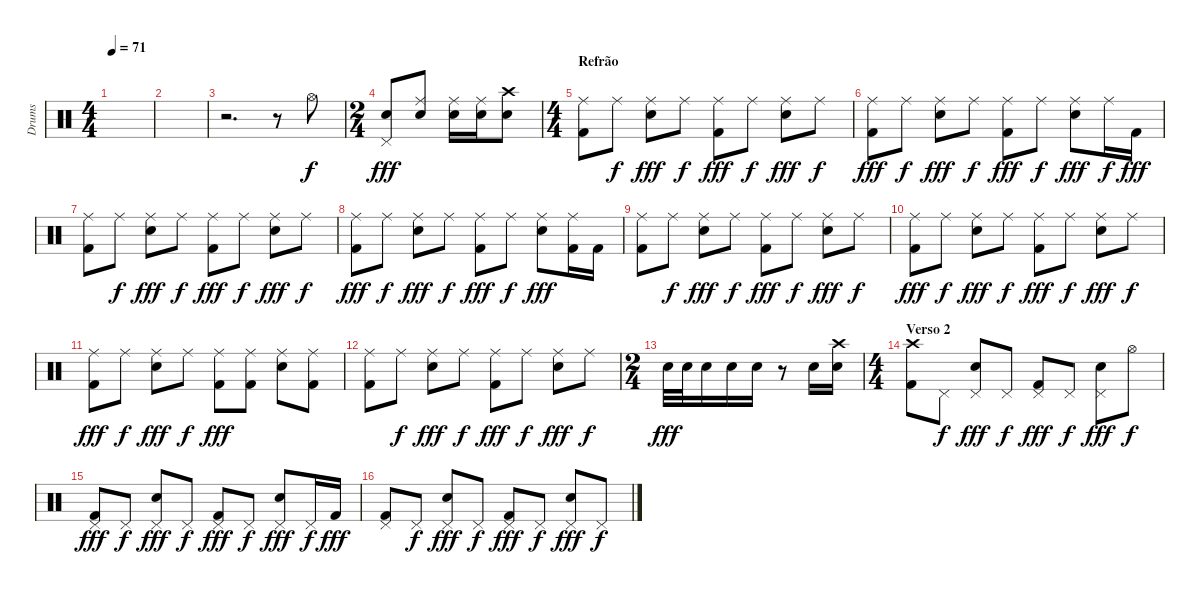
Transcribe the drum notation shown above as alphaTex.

\track ("Drums" "Drums") {instrument percussion}
\staff {score}
\articulation defaults
\ts (4 4)
\tempo 71
\clef neutral
\ks c
|
|
r.2{d} r.8 "Hi-Hat (open)".8 |
\ts (2 4)
("Electric Snare (hit)" "Pedal Hi-Hat (hit)").8{dy fff} ("Electric Snare (hit)" "Ride (middle)").8 ("Electric Snare (hit)" "Ride (middle)").16 ("Electric Snare (hit)" "Ride (middle)").16 ("Electric Snare (hit)" "Crash high (hit)").8 |
\ts (4 4)
\section ("" "Refrão")
("Ride (middle)" "Kick (hit) 2").8 "Ride (middle)".8{dy f} ("Ride (middle)" "Electric Snare (hit)").8{dy fff} "Ride (middle)".8{dy f} ("Ride (middle)" "Kick (hit) 2").8{dy fff} "Ride (middle)".8{dy f} ("Ride (middle)" "Electric Snare (hit)").8{dy fff} "Ride (middle)".8{dy f} |
("Ride (middle)" "Kick (hit) 2").8{dy fff} "Ride (middle)".8{dy f} ("Ride (middle)" "Electric Snare (hit)").8{dy fff} "Ride (middle)".8{dy f} ("Ride (middle)" "Kick (hit) 2").8{dy fff} "Ride (middle)".8{dy f} ("Ride (middle)" "Electric Snare (hit)").8{dy fff} "Ride (middle)".16{dy f} "Kick (hit) 2".16{dy fff} |
("Ride (middle)" "Kick (hit) 2").8 "Ride (middle)".8{dy f} ("Ride (middle)" "Electric Snare (hit)").8{dy fff} "Ride (middle)".8{dy f} ("Ride (middle)" "Kick (hit) 2").8{dy fff} "Ride (middle)".8{dy f} ("Ride (middle)" "Electric Snare (hit)").8{dy fff} "Ride (middle)".8{dy f} |
("Ride (middle)" "Kick (hit) 2").8{dy fff} "Ride (middle)".8{dy f} ("Ride (middle)" "Electric Snare (hit)").8{dy fff} "Ride (middle)".8{dy f} ("Ride (middle)" "Kick (hit) 2").8{dy fff} "Ride (middle)".8{dy f} ("Ride (middle)" "Electric Snare (hit)").8{dy fff} ("Ride (middle)" "Kick (hit) 2").16 "Kick (hit) 2".16 |
("Ride (middle)" "Kick (hit) 2").8 "Ride (middle)".8{dy f} ("Ride (middle)" "Electric Snare (hit)").8{dy fff} "Ride (middle)".8{dy f} ("Ride (middle)" "Kick (hit) 2").8{dy fff} "Ride (middle)".8{dy f} ("Ride (middle)" "Electric Snare (hit)").8{dy fff} "Ride (middle)".8{dy f} |
("Ride (middle)" "Kick (hit) 2").8{dy fff} "Ride (middle)".8{dy f} ("Ride (middle)" "Electric Snare (hit)").8{dy fff} "Ride (middle)".8{dy f} ("Ride (middle)" "Kick (hit) 2").8{dy fff} "Ride (middle)".8{dy f} ("Ride (middle)" "Electric Snare (hit)").8{dy fff} "Ride (middle)".8{dy f} |
("Ride (middle)" "Kick (hit) 2").8{dy fff} "Ride (middle)".8{dy f} ("Ride (middle)" "Electric Snare (hit)").8{dy fff} "Ride (middle)".8{dy f} ("Ride (middle)" "Kick (hit) 2").8{dy fff} ("Ride (middle)" "Kick (hit) 2").8 ("Ride (middle)" "Electric Snare (hit)").8 ("Ride (middle)" "Kick (hit) 2").8 |
("Ride (middle)" "Kick (hit) 2").8 "Ride (middle)".8{dy f} ("Ride (middle)" "Electric Snare (hit)").8{dy fff} "Ride (middle)".8{dy f} ("Ride (middle)" "Kick (hit) 2").8{dy fff} "Ride (middle)".8{dy f} ("Ride (middle)" "Electric Snare (hit)").8{dy fff} "Ride (middle)".8{dy f} |
\ts (2 4)
"Electric Snare (hit)".32{dy fff} "Electric Snare (hit)".32 "Electric Snare (hit)".16 "Electric Snare (hit)".16 "Electric Snare (hit)".16 r.8 "Electric Snare (hit)".16 ("Electric Snare (hit)" "Crash high (hit)").16 |
\ts (4 4)
\section ("" "Verso 2")
("Crash high (hit)" "Kick (hit) 2").8 "Pedal Hi-Hat (hit)".8{dy f} ("Pedal Hi-Hat (hit)" "Electric Snare (hit)").8{dy fff} "Pedal Hi-Hat (hit)".8{dy f} ("Pedal Hi-Hat (hit)" "Kick (hit) 2").8{dy fff} "Pedal Hi-Hat (hit)".8{dy f} ("Pedal Hi-Hat (hit)" "Electric Snare (hit)").8{dy fff} "Hi-Hat (open)".8{dy f} |
("Pedal Hi-Hat (hit)" "Kick (hit) 2").8{dy fff} "Pedal Hi-Hat (hit)".8{dy f} ("Pedal Hi-Hat (hit)" "Electric Snare (hit)").8{dy fff} "Pedal Hi-Hat (hit)".8{dy f} ("Pedal Hi-Hat (hit)" "Kick (hit) 2").8{dy fff} "Pedal Hi-Hat (hit)".8{dy f} ("Pedal Hi-Hat (hit)" "Electric Snare (hit)").8{dy fff} "Pedal Hi-Hat (hit)".16{dy f} "Kick (hit) 2".16{dy fff} |
("Pedal Hi-Hat (hit)" "Kick (hit) 2").8 "Pedal Hi-Hat (hit)".8{dy f} ("Pedal Hi-Hat (hit)" "Electric Snare (hit)").8{dy fff} "Pedal Hi-Hat (hit)".8{dy f} ("Pedal Hi-Hat (hit)" "Kick (hit) 2").8{dy fff} "Pedal Hi-Hat (hit)".8{dy f} ("Pedal Hi-Hat (hit)" "Electric Snare (hit)").8{dy fff} "Pedal Hi-Hat (hit)".8{dy f}
